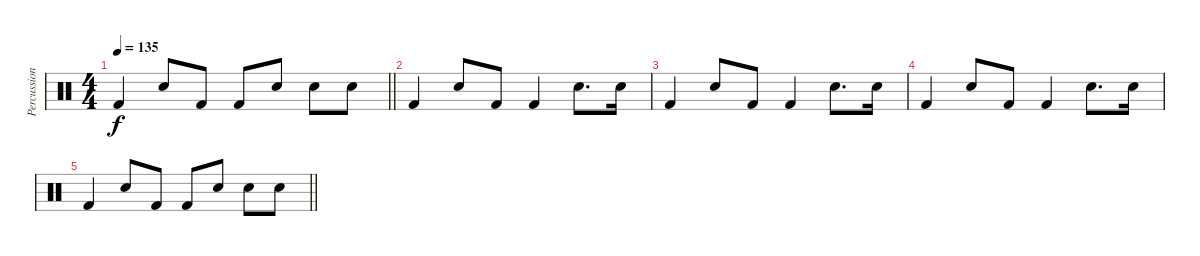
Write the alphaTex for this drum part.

\track ("Percussion" "Percussion") {instrument percussion}
\staff {score}
\articulation defaults
\ts (4 4)
\tempo 135
\clef neutral
\barLineRight lightlight
\ks c "Kick (hit) 2".4{dy f} "Electric Snare (hit)".8 "Kick (hit) 2".8 "Kick (hit) 2".8 "Electric Snare (hit)".8 "Electric Snare (hit)".8 "Snare (hit)".8
|
"Kick (hit) 2".4 "Electric Snare (hit)".8 "Kick (hit) 2".8 "Kick (hit) 2".4 "Electric Snare (hit)".8{d} "Snare (hit)".16 |
"Kick (hit) 2".4 "Electric Snare (hit)".8 "Kick (hit) 2".8 "Kick (hit) 2".4 "Electric Snare (hit)".8{d} "Snare (hit)".16 |
"Kick (hit) 2".4 "Electric Snare (hit)".8 "Kick (hit) 2".8 "Kick (hit) 2".4 "Electric Snare (hit)".8{d} "Snare (hit)".16 |
\barLineRight lightlight "Kick (hit) 2".4 "Electric Snare (hit)".8 "Kick (hit) 2".8 "Kick (hit) 2".8 "Electric Snare (hit)".8 "Electric Snare (hit)".8 "Snare (hit)".8
